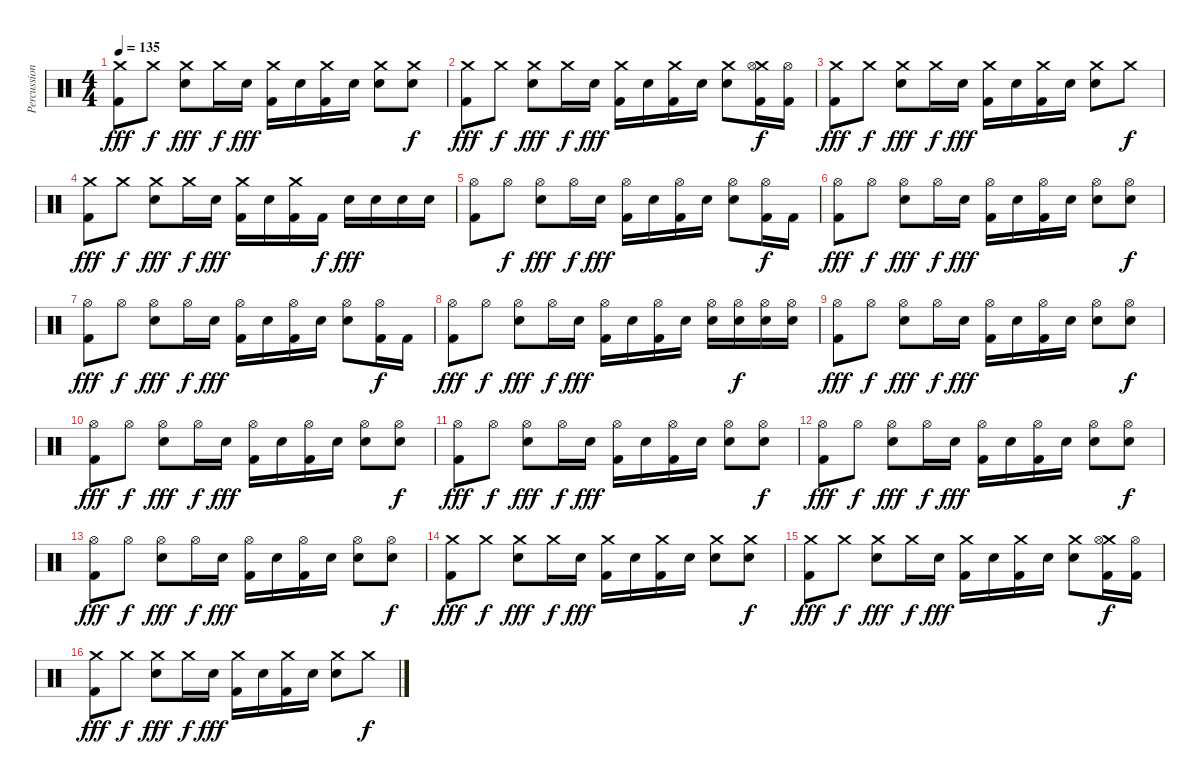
\track ("Percussions" "Percussion") {instrument percussion}
\staff {score}
\articulation defaults
\ts (4 4)
\tempo 135
\clef neutral
\ks c
("Crash medium (hit)" "Kick (hit) 2").8{dy fff} "Crash medium (hit)".8{dy f} ("Crash medium (hit)" "Electric Snare (hit)").8{dy fff} "Crash medium (hit)".16{dy f} "Electric Snare (hit)".16{dy fff} ("Crash medium (hit)" "Kick (hit) 2").16 "Electric Snare (hit)".16 ("Crash medium (hit)" "Kick (hit) 2").16 "Electric Snare (hit)".16 ("Crash medium (hit)" "Electric Snare (hit)").8 ("Crash medium (hit)" "Electric Snare (hit)").8{dy f} |
("Crash medium (hit)" "Kick (hit) 2").8{dy fff} "Crash medium (hit)".8{dy f} ("Crash medium (hit)" "Electric Snare (hit)").8{dy fff} "Crash medium (hit)".16{dy f} "Electric Snare (hit)".16{dy fff} ("Crash medium (hit)" "Kick (hit) 2").16 "Electric Snare (hit)".16 ("Crash medium (hit)" "Kick (hit) 2").16 "Electric Snare (hit)".16 ("Crash medium (hit)" "Electric Snare (hit)").8 ("Crash medium (hit)" "Hi-Hat (open)" "Kick (hit) 2").16{dy f} ("Hi-Hat (open)" "Kick (hit) 2").16 |
("Crash medium (hit)" "Kick (hit) 2").8{dy fff} "Crash medium (hit)".8{dy f} ("Crash medium (hit)" "Electric Snare (hit)").8{dy fff} "Crash medium (hit)".16{dy f} "Electric Snare (hit)".16{dy fff} ("Crash medium (hit)" "Kick (hit) 2").16 "Electric Snare (hit)".16 ("Crash medium (hit)" "Kick (hit) 2").16 "Electric Snare (hit)".16 ("Crash medium (hit)" "Electric Snare (hit)").8 "Crash medium (hit)".8{dy f} |
("Crash medium (hit)" "Kick (hit) 2").8{dy fff} "Crash medium (hit)".8{dy f} ("Crash medium (hit)" "Electric Snare (hit)").8{dy fff} "Crash medium (hit)".16{dy f} "Electric Snare (hit)".16{dy fff} ("Crash medium (hit)" "Kick (hit) 2").16 "Electric Snare (hit)".16 ("Crash medium (hit)" "Kick (hit) 2").16 "Kick (hit) 2".16{dy f} "Electric Snare (hit)".16{dy fff} "Electric Snare (hit)".16 "Electric Snare (hit)".16 "Electric Snare (hit)".16 |
("Hi-Hat (open)" "Kick (hit) 2").8 "Hi-Hat (open)".8{dy f} ("Hi-Hat (open)" "Electric Snare (hit)").8{dy fff} "Hi-Hat (open)".16{dy f} "Electric Snare (hit)".16{dy fff} ("Hi-Hat (open)" "Kick (hit) 2").16 "Electric Snare (hit)".16 ("Hi-Hat (open)" "Kick (hit) 2").16 "Electric Snare (hit)".16 ("Hi-Hat (open)" "Electric Snare (hit)").8 ("Hi-Hat (open)" "Kick (hit) 2").16{dy f} "Kick (hit) 2".16 |
("Hi-Hat (open)" "Kick (hit) 2").8{dy fff} "Hi-Hat (open)".8{dy f} ("Hi-Hat (open)" "Electric Snare (hit)").8{dy fff} "Hi-Hat (open)".16{dy f} "Electric Snare (hit)".16{dy fff} ("Hi-Hat (open)" "Kick (hit) 2").16 "Electric Snare (hit)".16 ("Hi-Hat (open)" "Kick (hit) 2").16 "Electric Snare (hit)".16 ("Hi-Hat (open)" "Electric Snare (hit)").8 ("Hi-Hat (open)" "Electric Snare (hit)").8{dy f} |
("Hi-Hat (open)" "Kick (hit) 2").8{dy fff} "Hi-Hat (open)".8{dy f} ("Hi-Hat (open)" "Electric Snare (hit)").8{dy fff} "Hi-Hat (open)".16{dy f} "Electric Snare (hit)".16{dy fff} ("Hi-Hat (open)" "Kick (hit) 2").16 "Electric Snare (hit)".16 ("Hi-Hat (open)" "Kick (hit) 2").16 "Electric Snare (hit)".16 ("Hi-Hat (open)" "Electric Snare (hit)").8 ("Hi-Hat (open)" "Kick (hit) 2").16{dy f} "Kick (hit) 2".16 |
("Hi-Hat (open)" "Kick (hit) 2").8{dy fff} "Hi-Hat (open)".8{dy f} ("Hi-Hat (open)" "Electric Snare (hit)").8{dy fff} "Hi-Hat (open)".16{dy f} "Electric Snare (hit)".16{dy fff} ("Hi-Hat (open)" "Kick (hit) 2").16 "Electric Snare (hit)".16 ("Hi-Hat (open)" "Kick (hit) 2").16 "Electric Snare (hit)".16 ("Hi-Hat (open)" "Electric Snare (hit)").16 ("Hi-Hat (open)" "Electric Snare (hit)").16{dy f} ("Hi-Hat (open)" "Electric Snare (hit)").16 ("Hi-Hat (open)" "Electric Snare (hit)").16 |
("Hi-Hat (open)" "Kick (hit) 2").8{dy fff} "Hi-Hat (open)".8{dy f} ("Hi-Hat (open)" "Electric Snare (hit)").8{dy fff} "Hi-Hat (open)".16{dy f} "Electric Snare (hit)".16{dy fff} ("Hi-Hat (open)" "Kick (hit) 2").16 "Electric Snare (hit)".16 ("Hi-Hat (open)" "Kick (hit) 2").16 "Electric Snare (hit)".16 ("Hi-Hat (open)" "Electric Snare (hit)").8 ("Hi-Hat (open)" "Electric Snare (hit)").8{dy f} |
("Hi-Hat (open)" "Kick (hit) 2").8{dy fff} "Hi-Hat (open)".8{dy f} ("Hi-Hat (open)" "Electric Snare (hit)").8{dy fff} "Hi-Hat (open)".16{dy f} "Electric Snare (hit)".16{dy fff} ("Hi-Hat (open)" "Kick (hit) 2").16 "Electric Snare (hit)".16 ("Hi-Hat (open)" "Kick (hit) 2").16 "Electric Snare (hit)".16 ("Hi-Hat (open)" "Electric Snare (hit)").8 ("Hi-Hat (open)" "Electric Snare (hit)").8{dy f} |
("Hi-Hat (open)" "Kick (hit) 2").8{dy fff} "Hi-Hat (open)".8{dy f} ("Hi-Hat (open)" "Electric Snare (hit)").8{dy fff} "Hi-Hat (open)".16{dy f} "Electric Snare (hit)".16{dy fff} ("Hi-Hat (open)" "Kick (hit) 2").16 "Electric Snare (hit)".16 ("Hi-Hat (open)" "Kick (hit) 2").16 "Electric Snare (hit)".16 ("Hi-Hat (open)" "Electric Snare (hit)").8 ("Hi-Hat (open)" "Electric Snare (hit)").8{dy f} |
("Hi-Hat (open)" "Kick (hit) 2").8{dy fff} "Hi-Hat (open)".8{dy f} ("Hi-Hat (open)" "Electric Snare (hit)").8{dy fff} "Hi-Hat (open)".16{dy f} "Electric Snare (hit)".16{dy fff} ("Hi-Hat (open)" "Kick (hit) 2").16 "Electric Snare (hit)".16 ("Hi-Hat (open)" "Kick (hit) 2").16 "Electric Snare (hit)".16 ("Hi-Hat (open)" "Electric Snare (hit)").8 ("Hi-Hat (open)" "Electric Snare (hit)").8{dy f} |
("Hi-Hat (open)" "Kick (hit) 2").8{dy fff} "Hi-Hat (open)".8{dy f} ("Hi-Hat (open)" "Electric Snare (hit)").8{dy fff} "Hi-Hat (open)".16{dy f} "Electric Snare (hit)".16{dy fff} ("Hi-Hat (open)" "Kick (hit) 2").16 "Electric Snare (hit)".16 ("Hi-Hat (open)" "Kick (hit) 2").16 "Electric Snare (hit)".16 ("Hi-Hat (open)" "Electric Snare (hit)").8 ("Hi-Hat (open)" "Electric Snare (hit)").8{dy f} |
("Crash medium (hit)" "Kick (hit) 2").8{dy fff} "Crash medium (hit)".8{dy f} ("Crash medium (hit)" "Electric Snare (hit)").8{dy fff} "Crash medium (hit)".16{dy f} "Electric Snare (hit)".16{dy fff} ("Crash medium (hit)" "Kick (hit) 2").16 "Electric Snare (hit)".16 ("Crash medium (hit)" "Kick (hit) 2").16 "Electric Snare (hit)".16 ("Crash medium (hit)" "Electric Snare (hit)").8 ("Crash medium (hit)" "Electric Snare (hit)").8{dy f} |
("Crash medium (hit)" "Kick (hit) 2").8{dy fff} "Crash medium (hit)".8{dy f} ("Crash medium (hit)" "Electric Snare (hit)").8{dy fff} "Crash medium (hit)".16{dy f} "Electric Snare (hit)".16{dy fff} ("Crash medium (hit)" "Kick (hit) 2").16 "Electric Snare (hit)".16 ("Crash medium (hit)" "Kick (hit) 2").16 "Electric Snare (hit)".16 ("Crash medium (hit)" "Electric Snare (hit)").8 ("Crash medium (hit)" "Hi-Hat (open)" "Kick (hit) 2").16{dy f} ("Hi-Hat (open)" "Kick (hit) 2").16 |
("Crash medium (hit)" "Kick (hit) 2").8{dy fff} "Crash medium (hit)".8{dy f} ("Crash medium (hit)" "Electric Snare (hit)").8{dy fff} "Crash medium (hit)".16{dy f} "Electric Snare (hit)".16{dy fff} ("Crash medium (hit)" "Kick (hit) 2").16 "Electric Snare (hit)".16 ("Crash medium (hit)" "Kick (hit) 2").16 "Electric Snare (hit)".16 ("Crash medium (hit)" "Electric Snare (hit)").8 "Crash medium (hit)".8{dy f}
